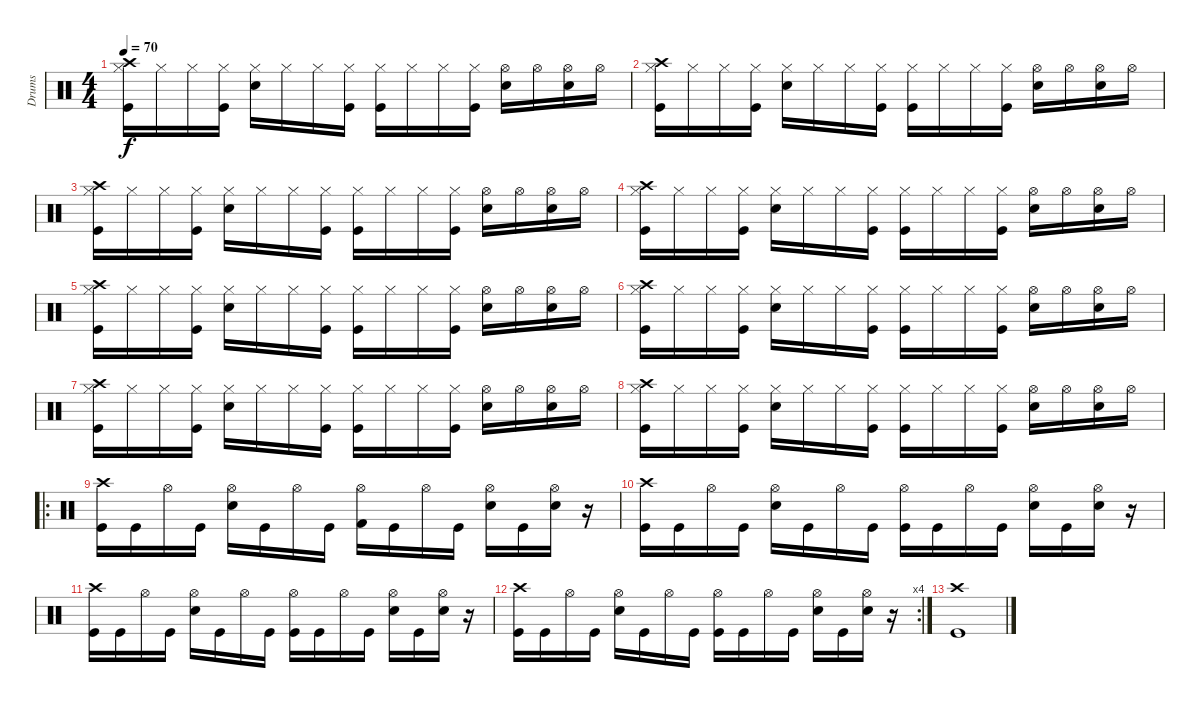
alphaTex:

\track ("Drums" "Drums") {instrument percussion}
\staff {score}
\articulation defaults
\ts (4 4)
\tempo 70
\clef neutral
\ks c
("Crash high (hit)" "Hi-Hat (closed)" "Kick (hit)").16{dy f} "Hi-Hat (closed)".16 "Hi-Hat (closed)".16 ("Hi-Hat (closed)" "Kick (hit)").16 ("Hi-Hat (closed)" "Electric Snare (hit)").16 "Hi-Hat (closed)".16 "Hi-Hat (closed)".16 ("Hi-Hat (closed)" "Kick (hit)").16 ("Hi-Hat (closed)" "Kick (hit)").16 "Hi-Hat (closed)".16 "Hi-Hat (closed)".16 ("Hi-Hat (closed)" "Kick (hit)").16 ("Hi-Hat (open)" "Electric Snare (hit)").16 "Hi-Hat (open)".16 ("Hi-Hat (open)" "Electric Snare (hit)").16 "Hi-Hat (open)".16 |
("Crash high (hit)" "Hi-Hat (closed)" "Kick (hit)").16 "Hi-Hat (closed)".16 "Hi-Hat (closed)".16 ("Hi-Hat (closed)" "Kick (hit)").16 ("Hi-Hat (closed)" "Electric Snare (hit)").16 "Hi-Hat (closed)".16 "Hi-Hat (closed)".16 ("Hi-Hat (closed)" "Kick (hit)").16 ("Hi-Hat (closed)" "Kick (hit)").16 "Hi-Hat (closed)".16 "Hi-Hat (closed)".16 ("Hi-Hat (closed)" "Kick (hit)").16 ("Hi-Hat (open)" "Electric Snare (hit)").16 "Hi-Hat (open)".16 ("Hi-Hat (open)" "Electric Snare (hit)").16 "Hi-Hat (open)".16 |
("Crash high (hit)" "Hi-Hat (closed)" "Kick (hit)").16 "Hi-Hat (closed)".16 "Hi-Hat (closed)".16 ("Hi-Hat (closed)" "Kick (hit)").16 ("Hi-Hat (closed)" "Electric Snare (hit)").16 "Hi-Hat (closed)".16 "Hi-Hat (closed)".16 ("Hi-Hat (closed)" "Kick (hit)").16 ("Hi-Hat (closed)" "Kick (hit)").16 "Hi-Hat (closed)".16 "Hi-Hat (closed)".16 ("Hi-Hat (closed)" "Kick (hit)").16 ("Hi-Hat (open)" "Electric Snare (hit)").16 "Hi-Hat (open)".16 ("Hi-Hat (open)" "Electric Snare (hit)").16 "Hi-Hat (open)".16 |
("Crash high (hit)" "Hi-Hat (closed)" "Kick (hit)").16 "Hi-Hat (closed)".16 "Hi-Hat (closed)".16 ("Hi-Hat (closed)" "Kick (hit)").16 ("Hi-Hat (closed)" "Electric Snare (hit)").16 "Hi-Hat (closed)".16 "Hi-Hat (closed)".16 ("Hi-Hat (closed)" "Kick (hit)").16 ("Hi-Hat (closed)" "Kick (hit)").16 "Hi-Hat (closed)".16 "Hi-Hat (closed)".16 ("Hi-Hat (closed)" "Kick (hit)").16 ("Hi-Hat (open)" "Electric Snare (hit)").16 "Hi-Hat (open)".16 ("Hi-Hat (open)" "Electric Snare (hit)").16 "Hi-Hat (open)".16 |
("Crash high (hit)" "Hi-Hat (closed)" "Kick (hit)").16 "Hi-Hat (closed)".16 "Hi-Hat (closed)".16 ("Hi-Hat (closed)" "Kick (hit)").16 ("Hi-Hat (closed)" "Electric Snare (hit)").16 "Hi-Hat (closed)".16 "Hi-Hat (closed)".16 ("Hi-Hat (closed)" "Kick (hit)").16 ("Hi-Hat (closed)" "Kick (hit)").16 "Hi-Hat (closed)".16 "Hi-Hat (closed)".16 ("Hi-Hat (closed)" "Kick (hit)").16 ("Hi-Hat (open)" "Electric Snare (hit)").16 "Hi-Hat (open)".16 ("Hi-Hat (open)" "Electric Snare (hit)").16 "Hi-Hat (open)".16 |
("Crash high (hit)" "Hi-Hat (closed)" "Kick (hit)").16 "Hi-Hat (closed)".16 "Hi-Hat (closed)".16 ("Hi-Hat (closed)" "Kick (hit)").16 ("Hi-Hat (closed)" "Electric Snare (hit)").16 "Hi-Hat (closed)".16 "Hi-Hat (closed)".16 ("Hi-Hat (closed)" "Kick (hit)").16 ("Hi-Hat (closed)" "Kick (hit)").16 "Hi-Hat (closed)".16 "Hi-Hat (closed)".16 ("Hi-Hat (closed)" "Kick (hit)").16 ("Hi-Hat (open)" "Electric Snare (hit)").16 "Hi-Hat (open)".16 ("Hi-Hat (open)" "Electric Snare (hit)").16 "Hi-Hat (open)".16 |
("Crash high (hit)" "Hi-Hat (closed)" "Kick (hit)").16 "Hi-Hat (closed)".16 "Hi-Hat (closed)".16 ("Hi-Hat (closed)" "Kick (hit)").16 ("Hi-Hat (closed)" "Electric Snare (hit)").16 "Hi-Hat (closed)".16 "Hi-Hat (closed)".16 ("Hi-Hat (closed)" "Kick (hit)").16 ("Hi-Hat (closed)" "Kick (hit)").16 "Hi-Hat (closed)".16 "Hi-Hat (closed)".16 ("Hi-Hat (closed)" "Kick (hit)").16 ("Hi-Hat (open)" "Electric Snare (hit)").16 "Hi-Hat (open)".16 ("Hi-Hat (open)" "Electric Snare (hit)").16 "Hi-Hat (open)".16 |
("Crash high (hit)" "Hi-Hat (closed)" "Kick (hit)").16 "Hi-Hat (closed)".16 "Hi-Hat (closed)".16 ("Hi-Hat (closed)" "Kick (hit)").16 ("Hi-Hat (closed)" "Electric Snare (hit)").16 "Hi-Hat (closed)".16 "Hi-Hat (closed)".16 ("Hi-Hat (closed)" "Kick (hit)").16 ("Hi-Hat (closed)" "Kick (hit)").16 "Hi-Hat (closed)".16 "Hi-Hat (closed)".16 ("Hi-Hat (closed)" "Kick (hit)").16 ("Hi-Hat (open)" "Electric Snare (hit)").16 "Hi-Hat (open)".16 ("Hi-Hat (open)" "Electric Snare (hit)").16 "Hi-Hat (open)".16 |
\ro
("Crash high (hit)" "Kick (hit)").16 "Kick (hit)".16 "Hi-Hat (open)".16 "Kick (hit)".16 ("Hi-Hat (open)" "Electric Snare (hit)").16 "Kick (hit)".16 "Hi-Hat (open)".16 "Kick (hit)".16 ("Hi-Hat (open)" "Kick (hit) 2").16 "Kick (hit)".16 "Hi-Hat (open)".16 "Kick (hit)".16 ("Hi-Hat (open)" "Electric Snare (hit)").16 "Kick (hit)".16 ("Hi-Hat (open)" "Electric Snare (hit)").16 r.16 |
("Crash high (hit)" "Kick (hit)").16 "Kick (hit)".16 "Hi-Hat (open)".16 "Kick (hit)".16 ("Hi-Hat (open)" "Electric Snare (hit)").16 "Kick (hit)".16 "Hi-Hat (open)".16 "Kick (hit)".16 ("Hi-Hat (open)" "Kick (hit)").16 "Kick (hit)".16 "Hi-Hat (open)".16 "Kick (hit)".16 ("Hi-Hat (open)" "Electric Snare (hit)").16 "Kick (hit)".16 ("Hi-Hat (open)" "Electric Snare (hit)").16 r.16 |
("Crash high (hit)" "Kick (hit)").16 "Kick (hit)".16 "Hi-Hat (open)".16 "Kick (hit)".16 ("Hi-Hat (open)" "Electric Snare (hit)").16 "Kick (hit)".16 "Hi-Hat (open)".16 "Kick (hit)".16 ("Hi-Hat (open)" "Kick (hit)").16 "Kick (hit)".16 "Hi-Hat (open)".16 "Kick (hit)".16 ("Hi-Hat (open)" "Electric Snare (hit)").16 "Kick (hit)".16 ("Hi-Hat (open)" "Electric Snare (hit)").16 r.16 |
\rc 4
("Crash high (hit)" "Kick (hit)").16 "Kick (hit)".16 "Hi-Hat (open)".16 "Kick (hit)".16 ("Hi-Hat (open)" "Electric Snare (hit)").16 "Kick (hit)".16 "Hi-Hat (open)".16 "Kick (hit)".16 ("Hi-Hat (open)" "Kick (hit)").16 "Kick (hit)".16 "Hi-Hat (open)".16 "Kick (hit)".16 ("Hi-Hat (open)" "Electric Snare (hit)").16 "Kick (hit)".16 ("Hi-Hat (open)" "Electric Snare (hit)").16 r.16 |
("Kick (hit)" "Crash high (hit)").1
